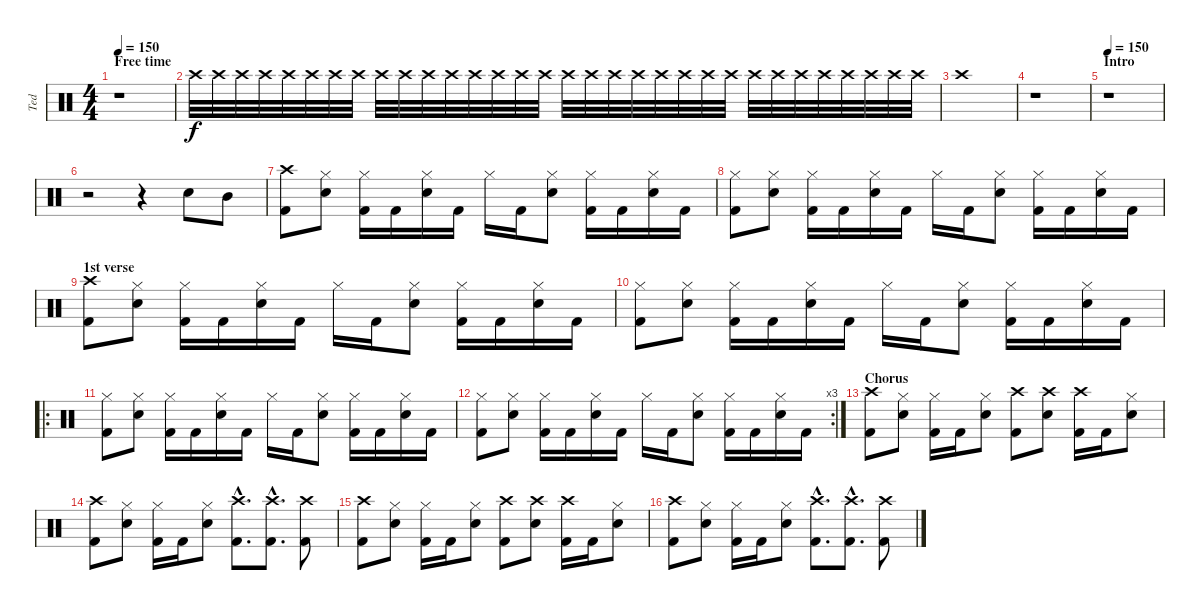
\track ("Ted" "Ted") {instrument percussion}
\staff {score}
\articulation defaults
\ts (4 4)
\section ("" "Free time")
\tempo 150
\tempo 110
\tempo 150
\clef neutral
\ks c
r.1{dy f} |
"Crash high (hit)".32 "Crash high (hit)".32 "Crash high (hit)".32 "Crash high (hit)".32 "Crash high (hit)".32 "Crash high (hit)".32 "Crash high (hit)".32 "Crash high (hit)".32 "Crash high (hit)".32 "Crash high (hit)".32 "Crash high (hit)".32 "Crash high (hit)".32 "Crash high (hit)".32 "Crash high (hit)".32 "Crash high (hit)".32 "Crash high (hit)".32 "Crash high (hit)".32 "Crash high (hit)".32 "Crash high (hit)".32 "Crash high (hit)".32 "Crash high (hit)".32 "Crash high (hit)".32 "Crash high (hit)".32 "Crash high (hit)".32 "Crash high (hit)".32 "Crash high (hit)".32 "Crash high (hit)".32 "Crash high (hit)".32 "Crash high (hit)".32 "Crash high (hit)".32 "Crash high (hit)".32 "Crash high (hit)".32 |
"Crash high (hit)".1 |
r.1 |
\section ("" "Intro")
\tempo 150
r.1 |
r.2 r.4 "Electric Snare (hit)".8 "Mid Tom (hit)".8 |
("Crash high (hit)" "Kick (hit) 2").8 ("Hi-Hat (closed)" "Electric Snare (hit)").8 ("Hi-Hat (closed)" "Kick (hit) 2").16 "Kick (hit) 2".16 ("Hi-Hat (closed)" "Electric Snare (hit)").16 "Kick (hit) 2".16 "Hi-Hat (closed)".16 "Kick (hit) 2".16 ("Hi-Hat (closed)" "Electric Snare (hit)").8 ("Hi-Hat (closed)" "Kick (hit) 2").16 "Kick (hit) 2".16 ("Hi-Hat (closed)" "Electric Snare (hit)").16 "Kick (hit) 2".16 |
("Hi-Hat (closed)" "Kick (hit) 2").8 ("Hi-Hat (closed)" "Electric Snare (hit)").8 ("Hi-Hat (closed)" "Kick (hit) 2").16 "Kick (hit) 2".16 ("Hi-Hat (closed)" "Electric Snare (hit)").16 "Kick (hit) 2".16 "Hi-Hat (closed)".16 "Kick (hit) 2".16 ("Hi-Hat (closed)" "Electric Snare (hit)").8 ("Hi-Hat (closed)" "Kick (hit) 2").16 "Kick (hit) 2".16 ("Hi-Hat (closed)" "Electric Snare (hit)").16 "Kick (hit) 2".16 |
\section ("" "1st verse")
("Crash high (hit)" "Kick (hit) 2").8 ("Hi-Hat (closed)" "Electric Snare (hit)").8 ("Hi-Hat (closed)" "Kick (hit) 2").16 "Kick (hit) 2".16 ("Hi-Hat (closed)" "Electric Snare (hit)").16 "Kick (hit) 2".16 "Hi-Hat (closed)".16 "Kick (hit) 2".16 ("Hi-Hat (closed)" "Electric Snare (hit)").8 ("Hi-Hat (closed)" "Kick (hit) 2").16 "Kick (hit) 2".16 ("Hi-Hat (closed)" "Electric Snare (hit)").16 "Kick (hit) 2".16 |
("Hi-Hat (closed)" "Kick (hit) 2").8 ("Hi-Hat (closed)" "Electric Snare (hit)").8 ("Hi-Hat (closed)" "Kick (hit) 2").16 "Kick (hit) 2".16 ("Hi-Hat (closed)" "Electric Snare (hit)").16 "Kick (hit) 2".16 "Hi-Hat (closed)".16 "Kick (hit) 2".16 ("Hi-Hat (closed)" "Electric Snare (hit)").8 ("Hi-Hat (closed)" "Kick (hit) 2").16 "Kick (hit) 2".16 ("Hi-Hat (closed)" "Electric Snare (hit)").16 "Kick (hit) 2".16 |
\ro
("Hi-Hat (closed)" "Kick (hit) 2").8 ("Hi-Hat (closed)" "Electric Snare (hit)").8 ("Hi-Hat (closed)" "Kick (hit) 2").16 "Kick (hit) 2".16 ("Hi-Hat (closed)" "Electric Snare (hit)").16 "Kick (hit) 2".16 "Hi-Hat (closed)".16 "Kick (hit) 2".16 ("Hi-Hat (closed)" "Electric Snare (hit)").8 ("Hi-Hat (closed)" "Kick (hit) 2").16 "Kick (hit) 2".16 ("Hi-Hat (closed)" "Electric Snare (hit)").16 "Kick (hit) 2".16 |
\rc 3
("Hi-Hat (closed)" "Kick (hit) 2").8 ("Hi-Hat (closed)" "Electric Snare (hit)").8 ("Hi-Hat (closed)" "Kick (hit) 2").16 "Kick (hit) 2".16 ("Hi-Hat (closed)" "Electric Snare (hit)").16 "Kick (hit) 2".16 "Hi-Hat (closed)".16 "Kick (hit) 2".16 ("Hi-Hat (closed)" "Electric Snare (hit)").8 ("Hi-Hat (closed)" "Kick (hit) 2").16 "Kick (hit) 2".16 ("Hi-Hat (closed)" "Electric Snare (hit)").16 "Kick (hit) 2".16 |
\section ("" "Chorus")
("Crash high (hit)" "Kick (hit) 2").8 ("Hi-Hat (closed)" "Electric Snare (hit)").8 ("Hi-Hat (closed)" "Kick (hit) 2").16 "Kick (hit) 2".16 ("Hi-Hat (closed)" "Electric Snare (hit)").8 ("Crash high (hit)" "Kick (hit) 2").8 ("Crash high (hit)" "Electric Snare (hit)").8 ("Crash high (hit)" "Kick (hit) 2").16 "Kick (hit) 2".16 ("Hi-Hat (closed)" "Electric Snare (hit)").8 |
("Crash high (hit)" "Kick (hit) 2").8 ("Hi-Hat (closed)" "Electric Snare (hit)").8 ("Hi-Hat (closed)" "Kick (hit) 2").16 "Kick (hit) 2".16 ("Hi-Hat (closed)" "Electric Snare (hit)").8 ("Crash high (hit)"{hac} "Kick (hit) 2"{hac}).8{d} ("Crash high (hit)"{hac} "Kick (hit) 2"{hac}).8{d} ("Crash high (hit)" "Kick (hit) 2").8 |
("Crash high (hit)" "Kick (hit) 2").8 ("Hi-Hat (closed)" "Electric Snare (hit)").8 ("Hi-Hat (closed)" "Kick (hit) 2").16 "Kick (hit) 2".16 ("Hi-Hat (closed)" "Electric Snare (hit)").8 ("Crash high (hit)" "Kick (hit) 2").8 ("Crash high (hit)" "Electric Snare (hit)").8 ("Crash high (hit)" "Kick (hit) 2").16 "Kick (hit) 2".16 ("Hi-Hat (closed)" "Electric Snare (hit)").8 |
("Crash high (hit)" "Kick (hit) 2").8 ("Hi-Hat (closed)" "Electric Snare (hit)").8 ("Hi-Hat (closed)" "Kick (hit) 2").16 "Kick (hit) 2".16 ("Hi-Hat (closed)" "Electric Snare (hit)").8 ("Crash high (hit)"{hac} "Kick (hit) 2"{hac}).8{d} ("Crash high (hit)"{hac} "Kick (hit) 2"{hac}).8{d} ("Crash high (hit)" "Kick (hit) 2").8
